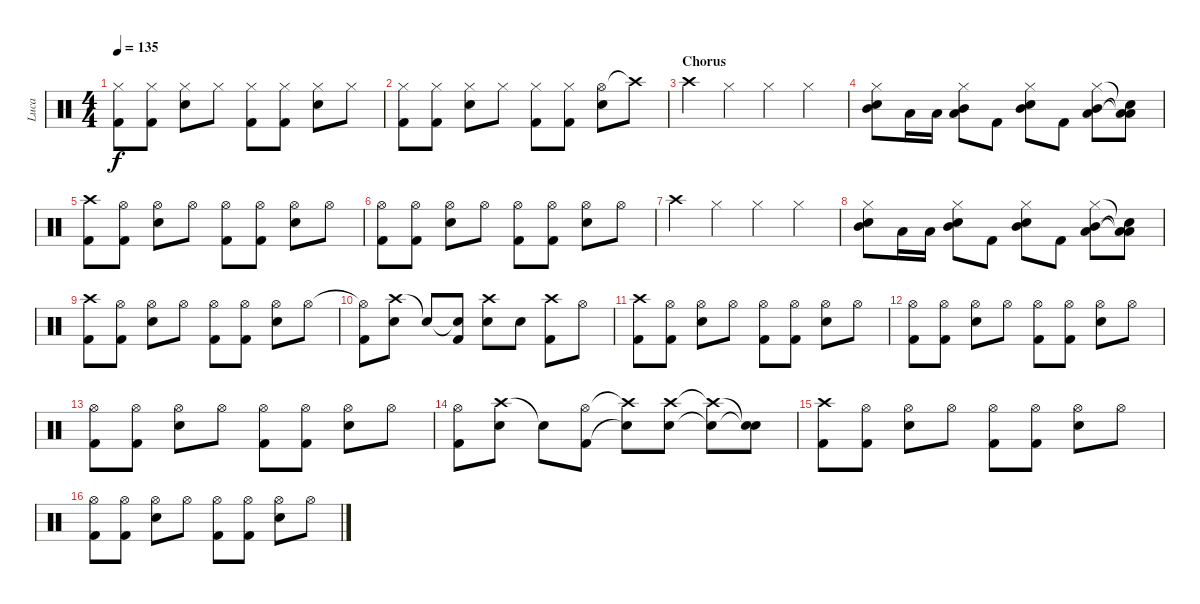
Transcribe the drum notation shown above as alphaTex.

\track ("Luca" "Luca") {instrument percussion}
\staff {score}
\articulation defaults
\ts (4 4)
\tempo 135
\clef neutral
\ks c
("Hi-Hat (closed)" "Kick (hit) 2").8{dy f} ("Hi-Hat (closed)" "Kick (hit) 2").8 ("Hi-Hat (closed)" "Snare (hit) 2").8 "Hi-Hat (closed)".8 ("Hi-Hat (closed)" "Kick (hit) 2").8 ("Hi-Hat (closed)" "Kick (hit) 2").8 ("Hi-Hat (closed)" "Snare (hit) 2").8 "Hi-Hat (closed)".8 |
("Hi-Hat (closed)" "Kick (hit) 2").8 ("Hi-Hat (closed)" "Kick (hit) 2").8 ("Hi-Hat (closed)" "Snare (hit) 2").8 "Hi-Hat (closed)".8 ("Hi-Hat (closed)" "Kick (hit) 2").8 ("Hi-Hat (closed)" "Kick (hit) 2").8 ("Hi-Hat (open)" "Snare (hit) 2").8 "Crash high (hit)"{t}.8 |
\section ("" "Chorus")
"Crash high (hit)".4 "Hi-Hat (closed)".4 "Hi-Hat (closed)".4 "Hi-Hat (closed)".4 |
("Hi-Hat (closed)" "Snare (hit) 2" "Mid Tom (hit)").8 "Low Tom (hit)".16 "Low Tom (hit)".16 ("Hi-Hat (closed)" "Low Tom (hit)" "Mid Tom (hit)").8 "Kick (hit) 2".8 ("Hi-Hat (closed)" "Snare (hit) 2" "Mid Tom (hit)").8 "Kick (hit) 2".8 ("Hi-Hat (closed)" "Mid Tom (hit)" "Low Tom (hit)").8 ("Snare (hit)"{t} "Low Tom (hit)"{t} "Low Floor Tom (hit)"{t}).8 |
("Crash high (hit)" "Kick (hit) 2").8 ("Hi-Hat (open)" "Kick (hit) 2").8 ("Hi-Hat (open)" "Snare (hit) 2").8 "Hi-Hat (open)".8 ("Hi-Hat (open)" "Kick (hit) 2").8 ("Hi-Hat (open)" "Kick (hit) 2").8 ("Hi-Hat (open)" "Snare (hit) 2").8 "Hi-Hat (open)".8 |
("Hi-Hat (open)" "Kick (hit) 2").8 ("Hi-Hat (open)" "Kick (hit) 2").8 ("Hi-Hat (open)" "Snare (hit) 2").8 "Hi-Hat (open)".8 ("Hi-Hat (open)" "Kick (hit) 2").8 ("Hi-Hat (open)" "Kick (hit) 2").8 ("Hi-Hat (open)" "Snare (hit) 2").8 "Hi-Hat (open)".8 |
"Crash high (hit)".4 "Hi-Hat (closed)".4 "Hi-Hat (closed)".4 "Hi-Hat (closed)".4 |
("Hi-Hat (closed)" "Snare (hit) 2" "Mid Tom (hit)").8 "Low Tom (hit)".16 "Low Tom (hit)".16 ("Hi-Hat (closed)" "Snare (hit) 2" "Mid Tom (hit)").8 "Kick (hit) 2".8 ("Hi-Hat (closed)" "Snare (hit) 2" "Mid Tom (hit)").8 "Kick (hit) 2".8 ("Hi-Hat (closed)" "Mid Tom (hit)" "Low Tom (hit)").8 ("Snare (hit)"{t} "Low Tom (hit)"{t} "Low Floor Tom (hit)"{t}).8 |
("Crash high (hit)" "Kick (hit) 2").8 ("Hi-Hat (open)" "Kick (hit) 2").8 ("Hi-Hat (open)" "Snare (hit) 2").8 "Hi-Hat (open)".8 ("Hi-Hat (open)" "Kick (hit) 2").8 ("Hi-Hat (open)" "Kick (hit) 2").8 ("Hi-Hat (open)" "Snare (hit) 2").8 "Hi-Hat (open)".8 |
("Hi-Hat (open)"{t} "Kick (hit) 2").8 ("Crash high (hit)" "Snare (hit) 2").8 "Snare (hit) 2"{t}.8 ("Snare (hit)"{t} "Kick (hit) 2").8 ("Crash high (hit)" "Snare (hit) 2").8 "Snare (hit) 2".8 ("Crash high (hit)" "Kick (hit) 2").8 "Hi-Hat (open)".8 |
("Crash high (hit)" "Kick (hit) 2").8 ("Hi-Hat (open)" "Kick (hit) 2").8 ("Hi-Hat (open)" "Snare (hit) 2").8 "Hi-Hat (open)".8 ("Hi-Hat (open)" "Kick (hit) 2").8 ("Hi-Hat (open)" "Kick (hit) 2").8 ("Hi-Hat (open)" "Snare (hit) 2").8 "Hi-Hat (open)".8 |
("Hi-Hat (open)" "Kick (hit) 2").8 ("Hi-Hat (open)" "Kick (hit) 2").8 ("Hi-Hat (open)" "Snare (hit) 2").8 "Hi-Hat (open)".8 ("Hi-Hat (open)" "Kick (hit) 2").8 ("Hi-Hat (open)" "Kick (hit) 2").8 ("Hi-Hat (open)" "Snare (hit) 2").8 "Hi-Hat (open)".8 |
("Hi-Hat (open)" "Kick (hit) 2").8 ("Hi-Hat (open)" "Kick (hit) 2").8 ("Hi-Hat (open)" "Snare (hit) 2").8 "Hi-Hat (open)".8 ("Hi-Hat (open)" "Kick (hit) 2").8 ("Hi-Hat (open)" "Kick (hit) 2").8 ("Hi-Hat (open)" "Snare (hit) 2").8 "Hi-Hat (open)".8 |
("Hi-Hat (open)" "Kick (hit) 2").8 ("Crash high (hit)" "Snare (hit) 2").8 "Snare (hit) 2"{t}.8 ("Hi-Hat (open)" "Kick (hit) 2").8 ("Crash high (hit)"{t} "Snare (hit) 2"{t}).8 ("Crash high (hit)" "Snare (hit) 2").8 ("Crash high (hit)"{t} "Snare (hit)"{t}).8 ("Snare (hit)"{t} "Snare (hit)"{t}).8 |
("Crash high (hit)" "Kick (hit) 2").8 ("Hi-Hat (open)" "Kick (hit) 2").8 ("Hi-Hat (open)" "Snare (hit) 2").8 "Hi-Hat (open)".8 ("Hi-Hat (open)" "Kick (hit) 2").8 ("Hi-Hat (open)" "Kick (hit) 2").8 ("Hi-Hat (open)" "Snare (hit) 2").8 "Hi-Hat (open)".8 |
("Hi-Hat (open)" "Kick (hit) 2").8 ("Hi-Hat (open)" "Kick (hit) 2").8 ("Hi-Hat (open)" "Snare (hit) 2").8 "Hi-Hat (open)".8 ("Hi-Hat (open)" "Kick (hit) 2").8 ("Hi-Hat (open)" "Kick (hit) 2").8 ("Hi-Hat (open)" "Snare (hit) 2").8 "Hi-Hat (open)".8
